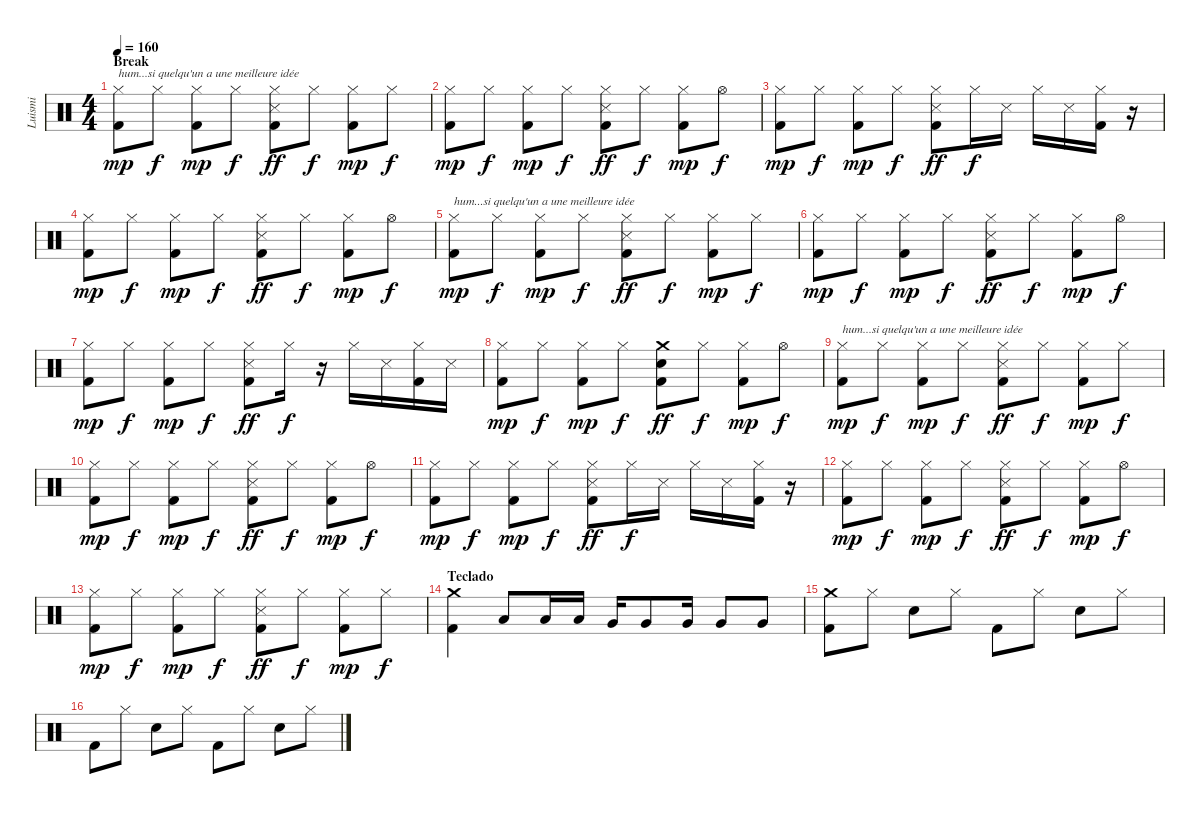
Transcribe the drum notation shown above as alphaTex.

\track ("Luismi" "Luismi") {instrument percussion}
\staff {score}
\articulation defaults
\ts (4 4)
\section ("" "Break")
\tempo 160
\clef neutral
\ks c
("Hi-Hat (closed)" "Kick (hit) 2").8{txt "hum...si quelqu'un a une meilleure idée" dy mp} "Hi-Hat (closed)".8{dy f} ("Hi-Hat (closed)" "Kick (hit) 2").8{dy mp} "Hi-Hat (closed)".8{dy f} ("Hi-Hat (closed)" "Snare (side stick) 3" "Kick (hit) 2").8{dy ff} "Hi-Hat (closed)".8{dy f} ("Hi-Hat (closed)" "Kick (hit) 2").8{dy mp} "Hi-Hat (closed)".8{dy f} |
("Hi-Hat (closed)" "Kick (hit) 2").8{dy mp} "Hi-Hat (closed)".8{dy f} ("Hi-Hat (closed)" "Kick (hit) 2").8{dy mp} "Hi-Hat (closed)".8{dy f} ("Hi-Hat (closed)" "Snare (side stick) 3" "Kick (hit) 2").8{dy ff} "Hi-Hat (closed)".8{dy f} ("Hi-Hat (closed)" "Kick (hit) 2").8{dy mp} "Hi-Hat (open)".8{dy f} |
("Hi-Hat (closed)" "Kick (hit) 2").8{dy mp} "Hi-Hat (closed)".8{dy f} ("Hi-Hat (closed)" "Kick (hit) 2").8{dy mp} "Hi-Hat (closed)".8{dy f} ("Hi-Hat (closed)" "Snare (side stick) 3" "Kick (hit) 2").8{dy ff} "Hi-Hat (closed)".16{dy f} "Snare (side stick) 3".16 "Hi-Hat (closed)".16 "Snare (side stick) 3".16 ("Hi-Hat (closed)" "Kick (hit) 2").16 r.16 |
("Hi-Hat (closed)" "Kick (hit) 2").8{dy mp} "Hi-Hat (closed)".8{dy f} ("Hi-Hat (closed)" "Kick (hit) 2").8{dy mp} "Hi-Hat (closed)".8{dy f} ("Hi-Hat (closed)" "Snare (side stick) 3" "Kick (hit) 2").8{dy ff} "Hi-Hat (closed)".8{dy f} ("Hi-Hat (closed)" "Kick (hit) 2").8{dy mp} "Hi-Hat (open)".8{dy f} |
("Hi-Hat (closed)" "Kick (hit) 2").8{txt "hum...si quelqu'un a une meilleure idée" dy mp} "Hi-Hat (closed)".8{dy f} ("Hi-Hat (closed)" "Kick (hit) 2").8{dy mp} "Hi-Hat (closed)".8{dy f} ("Hi-Hat (closed)" "Snare (side stick) 3" "Kick (hit) 2").8{dy ff} "Hi-Hat (closed)".8{dy f} ("Hi-Hat (closed)" "Kick (hit) 2").8{dy mp} "Hi-Hat (closed)".8{dy f} |
("Hi-Hat (closed)" "Kick (hit) 2").8{dy mp} "Hi-Hat (closed)".8{dy f} ("Hi-Hat (closed)" "Kick (hit) 2").8{dy mp} "Hi-Hat (closed)".8{dy f} ("Hi-Hat (closed)" "Snare (side stick) 3" "Kick (hit) 2").8{dy ff} "Hi-Hat (closed)".8{dy f} ("Hi-Hat (closed)" "Kick (hit) 2").8{dy mp} "Hi-Hat (open)".8{dy f} |
("Hi-Hat (closed)" "Kick (hit) 2").8{dy mp} "Hi-Hat (closed)".8{dy f} ("Hi-Hat (closed)" "Kick (hit) 2").8{dy mp} "Hi-Hat (closed)".8{dy f} ("Hi-Hat (closed)" "Snare (side stick) 3" "Kick (hit) 2").8{dy ff} "Hi-Hat (closed)".16{dy f} r.16 "Hi-Hat (closed)".16 "Snare (side stick) 3".16 ("Hi-Hat (closed)" "Kick (hit) 2").16 "Snare (side stick) 3".16 |
("Hi-Hat (closed)" "Kick (hit) 2").8{dy mp} "Hi-Hat (closed)".8{dy f} ("Hi-Hat (closed)" "Kick (hit) 2").8{dy mp} "Hi-Hat (closed)".8{dy f} ("Crash medium (hit)" "Snare (hit) 2" "Kick (hit) 2").8{dy ff} "Hi-Hat (closed)".8{dy f} ("Hi-Hat (closed)" "Kick (hit) 2").8{dy mp} "Hi-Hat (open)".8{dy f} |
("Hi-Hat (closed)" "Kick (hit) 2").8{txt "hum...si quelqu'un a une meilleure idée" dy mp} "Hi-Hat (closed)".8{dy f} ("Hi-Hat (closed)" "Kick (hit) 2").8{dy mp} "Hi-Hat (closed)".8{dy f} ("Hi-Hat (closed)" "Snare (side stick) 3" "Kick (hit) 2").8{dy ff} "Hi-Hat (closed)".8{dy f} ("Hi-Hat (closed)" "Kick (hit) 2").8{dy mp} "Hi-Hat (closed)".8{dy f} |
("Hi-Hat (closed)" "Kick (hit) 2").8{dy mp} "Hi-Hat (closed)".8{dy f} ("Hi-Hat (closed)" "Kick (hit) 2").8{dy mp} "Hi-Hat (closed)".8{dy f} ("Hi-Hat (closed)" "Snare (side stick) 3" "Kick (hit) 2").8{dy ff} "Hi-Hat (closed)".8{dy f} ("Hi-Hat (closed)" "Kick (hit) 2").8{dy mp} "Hi-Hat (open)".8{dy f} |
("Hi-Hat (closed)" "Kick (hit) 2").8{dy mp} "Hi-Hat (closed)".8{dy f} ("Hi-Hat (closed)" "Kick (hit) 2").8{dy mp} "Hi-Hat (closed)".8{dy f} ("Hi-Hat (closed)" "Snare (side stick) 3" "Kick (hit) 2").8{dy ff} "Hi-Hat (closed)".16{dy f} "Snare (side stick) 3".16 "Hi-Hat (closed)".16 "Snare (side stick) 3".16 ("Hi-Hat (closed)" "Kick (hit) 2").16 r.16 |
("Hi-Hat (closed)" "Kick (hit) 2").8{dy mp} "Hi-Hat (closed)".8{dy f} ("Hi-Hat (closed)" "Kick (hit) 2").8{dy mp} "Hi-Hat (closed)".8{dy f} ("Hi-Hat (closed)" "Snare (side stick) 3" "Kick (hit) 2").8{dy ff} "Hi-Hat (closed)".8{dy f} ("Hi-Hat (closed)" "Kick (hit) 2").8{dy mp} "Hi-Hat (open)".8{dy f} |
("Hi-Hat (closed)" "Kick (hit) 2").8{dy mp} "Hi-Hat (closed)".8{dy f} ("Hi-Hat (closed)" "Kick (hit) 2").8{dy mp} "Hi-Hat (closed)".8{dy f} ("Hi-Hat (closed)" "Snare (side stick) 3" "Kick (hit) 2").8{dy ff} "Hi-Hat (closed)".8{dy f} ("Hi-Hat (closed)" "Kick (hit) 2").8{dy mp} "Hi-Hat (closed)".8{dy f} |
\section ("" "Teclado")
("Crash medium (hit)" "Kick (hit) 2").4 "Low Tom (hit)".8 "Low Tom (hit)".16 "Low Tom (hit)".16 "Very Low Tom (hit)".16 "Very Low Tom (hit)".8 "Very Low Tom (hit)".16 "Very Low Tom (hit)".8 "Very Low Tom (hit)".8 |
("Crash medium (hit)" "Kick (hit) 2").8 "Hi-Hat (closed)".8 "Snare (hit) 2".8 "Hi-Hat (closed)".8 "Kick (hit) 2".8 "Hi-Hat (closed)".8 "Snare (hit) 2".8 "Hi-Hat (closed)".8 |
"Kick (hit) 2".8 "Hi-Hat (closed)".8 "Snare (hit) 2".8 "Hi-Hat (closed)".8 "Kick (hit) 2".8 "Hi-Hat (closed)".8 "Snare (hit) 2".8 "Hi-Hat (closed)".8
